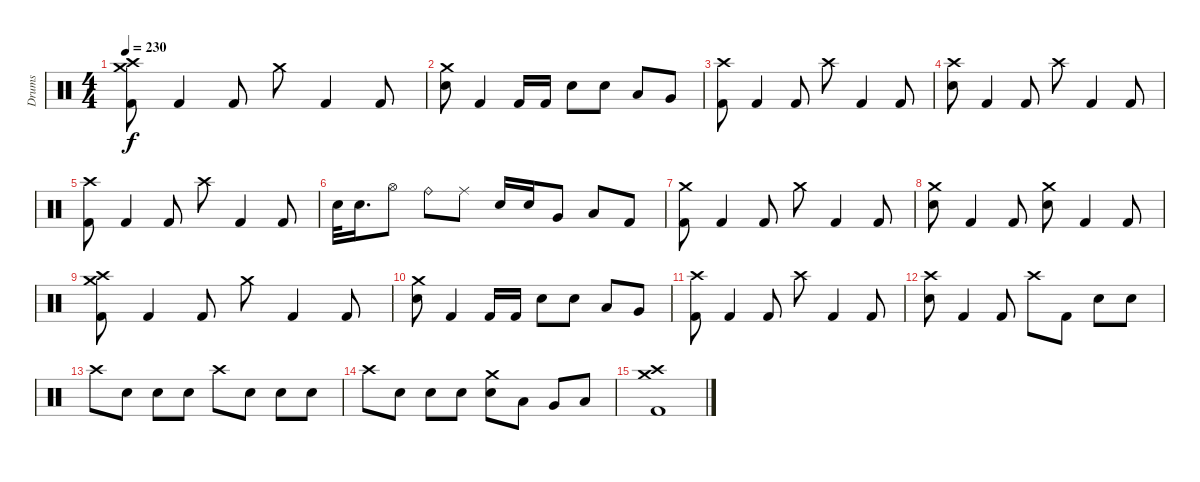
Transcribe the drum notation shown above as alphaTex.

\track ("Drums" "Drums") {instrument percussion}
\staff {score}
\articulation defaults
\ts (4 4)
\tempo 230
\clef neutral
\ks c
("Crash medium (hit)" "Crash high (hit)" "Kick (hit) 2").8{dy f} "Kick (hit) 2".4 "Kick (hit) 2".8 "Crash medium (hit)".8 "Kick (hit) 2".4 "Kick (hit) 2".8 |
("Crash medium (hit)" "Electric Snare (hit)").8 "Kick (hit) 2".4 "Kick (hit) 2".16 "Kick (hit) 2".16 "Electric Snare (hit)".8 "Electric Snare (hit)".8 "Low Tom (hit)".8 "Very Low Tom (hit)".8 |
("Crash high (hit)" "Kick (hit) 2").8 "Kick (hit) 2".4 "Kick (hit) 2".8 "Crash high (hit)".8 "Kick (hit) 2".4 "Kick (hit) 2".8 |
("Crash high (hit)" "Electric Snare (hit)").8 "Kick (hit) 2".4 "Kick (hit) 2".8 "Crash high (hit)".8 "Kick (hit) 2".4 "Kick (hit) 2".8 |
("Crash high (hit)" "Kick (hit) 2").8 "Kick (hit) 2".4 "Kick (hit) 2".8 "Crash high (hit)".8 "Kick (hit) 2".4 "Kick (hit) 2".8 |
"Electric Snare (hit)".32 "Electric Snare (hit)".16{d} "Hi-Hat (open)".8 "Ride (bell)".8 "Ride (middle)".8 "Electric Snare (hit)".16 "Electric Snare (hit)".16 "Very Low Tom (hit)".8 "Low Floor Tom (hit)".8 "Kick (hit) 2".8 |
("Crash medium (hit)" "Kick (hit) 2").8 "Kick (hit) 2".4 "Kick (hit) 2".8 "Crash medium (hit)".8 "Kick (hit) 2".4 "Kick (hit) 2".8 |
("Crash medium (hit)" "Electric Snare (hit)").8 "Kick (hit) 2".4 "Kick (hit) 2".8 ("Crash medium (hit)" "Electric Snare (hit)").8 "Kick (hit) 2".4 "Kick (hit) 2".8 |
("Crash medium (hit)" "Crash high (hit)" "Kick (hit) 2").8 "Kick (hit) 2".4 "Kick (hit) 2".8 "Crash medium (hit)".8 "Kick (hit) 2".4 "Kick (hit) 2".8 |
("Crash medium (hit)" "Electric Snare (hit)").8 "Kick (hit) 2".4 "Kick (hit) 2".16 "Kick (hit) 2".16 "Electric Snare (hit)".8 "Electric Snare (hit)".8 "Low Tom (hit)".8 "Very Low Tom (hit)".8 |
("Crash high (hit)" "Kick (hit) 2").8 "Kick (hit) 2".4 "Kick (hit) 2".8 "Crash high (hit)".8 "Kick (hit) 2".4 "Kick (hit) 2".8 |
("Crash high (hit)" "Electric Snare (hit)").8 "Kick (hit) 2".4 "Kick (hit) 2".8 "Crash high (hit)".8 "Kick (hit) 2".8 "Electric Snare (hit)".8 "Electric Snare (hit)".8 |
"Crash high (hit)".8 "Electric Snare (hit)".8 "Electric Snare (hit)".8 "Electric Snare (hit)".8 "Crash high (hit)".8 "Electric Snare (hit)".8 "Electric Snare (hit)".8 "Electric Snare (hit)".8 |
"Crash high (hit)".8 "Electric Snare (hit)".8 "Electric Snare (hit)".8 "Electric Snare (hit)".8 ("Crash medium (hit)" "Electric Snare (hit)").8 "Low Tom (hit)".8 "Very Low Tom (hit)".8 "Low Floor Tom (hit)".8 |
("Crash medium (hit)" "Crash high (hit)" "Kick (hit) 2").1
